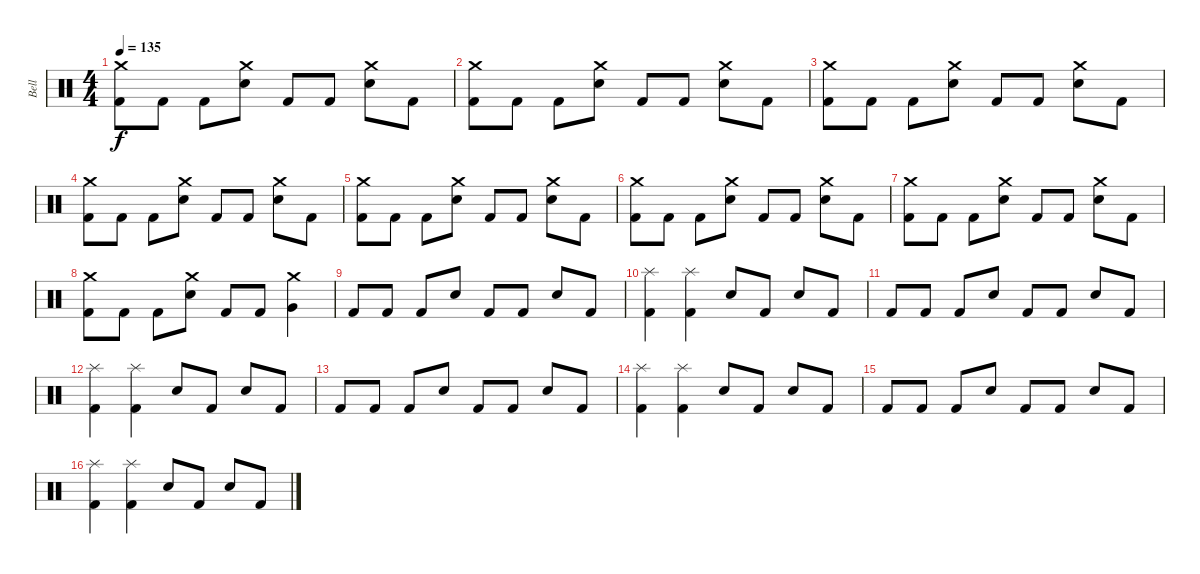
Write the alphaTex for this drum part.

\track ("Bell" "Bell") {instrument percussion}
\staff {score}
\articulation defaults
\ts (4 4)
\tempo 135
\clef neutral
\ks c
("Crash medium (hit)" "Kick (hit) 2").8{dy f} "Kick (hit) 2".8 "Kick (hit) 2".8 ("Crash medium (hit)" "Snare (hit) 2").8 "Kick (hit) 2".8 "Kick (hit) 2".8 ("Crash medium (hit)" "Snare (hit) 2").8 "Kick (hit) 2".8 |
("Crash medium (hit)" "Kick (hit) 2").8 "Kick (hit) 2".8 "Kick (hit) 2".8 ("Crash medium (hit)" "Snare (hit) 2").8 "Kick (hit) 2".8 "Kick (hit) 2".8 ("Crash medium (hit)" "Snare (hit) 2").8 "Kick (hit) 2".8 |
("Crash medium (hit)" "Kick (hit) 2").8 "Kick (hit) 2".8 "Kick (hit) 2".8 ("Crash medium (hit)" "Snare (hit) 2").8 "Kick (hit) 2".8 "Kick (hit) 2".8 ("Crash medium (hit)" "Snare (hit) 2").8 "Kick (hit) 2".8 |
("Crash medium (hit)" "Kick (hit) 2").8 "Kick (hit) 2".8 "Kick (hit) 2".8 ("Crash medium (hit)" "Snare (hit) 2").8 "Kick (hit) 2".8 "Kick (hit) 2".8 ("Crash medium (hit)" "Snare (hit) 2").8 "Kick (hit) 2".8 |
("Crash medium (hit)" "Kick (hit) 2").8 "Kick (hit) 2".8 "Kick (hit) 2".8 ("Crash medium (hit)" "Snare (hit) 2").8 "Kick (hit) 2".8 "Kick (hit) 2".8 ("Crash medium (hit)" "Snare (hit) 2").8 "Kick (hit) 2".8 |
("Crash medium (hit)" "Kick (hit) 2").8 "Kick (hit) 2".8 "Kick (hit) 2".8 ("Crash medium (hit)" "Snare (hit) 2").8 "Kick (hit) 2".8 "Kick (hit) 2".8 ("Crash medium (hit)" "Snare (hit) 2").8 "Kick (hit) 2".8 |
("Crash medium (hit)" "Kick (hit) 2").8 "Kick (hit) 2".8 "Kick (hit) 2".8 ("Crash medium (hit)" "Snare (hit) 2").8 "Kick (hit) 2".8 "Kick (hit) 2".8 ("Crash medium (hit)" "Snare (hit) 2").8 "Kick (hit) 2".8 |
("Crash medium (hit)" "Kick (hit) 2").8 "Kick (hit) 2".8 "Kick (hit) 2".8 ("Crash medium (hit)" "Snare (hit) 2").8 "Kick (hit) 2".8 "Kick (hit) 2".8 ("Crash medium (hit)" "Very Low Tom (hit)").4 |
"Kick (hit) 2".8 "Kick (hit) 2".8 "Kick (hit) 2".8 "Snare (hit) 2".8 "Kick (hit) 2".8 "Kick (hit) 2".8 "Snare (hit) 2".8 "Kick (hit) 2".8 |
("Splash (hit)" "Kick (hit) 2").4 ("Splash (hit)" "Kick (hit) 2").4 "Snare (hit) 2".8 "Kick (hit) 2".8 "Snare (hit) 2".8 "Kick (hit) 2".8 |
"Kick (hit) 2".8 "Kick (hit) 2".8 "Kick (hit) 2".8 "Snare (hit) 2".8 "Kick (hit) 2".8 "Kick (hit) 2".8 "Snare (hit) 2".8 "Kick (hit) 2".8 |
("Splash (hit)" "Kick (hit) 2").4 ("Splash (hit)" "Kick (hit) 2").4 "Snare (hit) 2".8 "Kick (hit) 2".8 "Snare (hit) 2".8 "Kick (hit) 2".8 |
"Kick (hit) 2".8 "Kick (hit) 2".8 "Kick (hit) 2".8 "Snare (hit) 2".8 "Kick (hit) 2".8 "Kick (hit) 2".8 "Snare (hit) 2".8 "Kick (hit) 2".8 |
("Splash (hit)" "Kick (hit) 2").4 ("Splash (hit)" "Kick (hit) 2").4 "Snare (hit) 2".8 "Kick (hit) 2".8 "Snare (hit) 2".8 "Kick (hit) 2".8 |
"Kick (hit) 2".8 "Kick (hit) 2".8 "Kick (hit) 2".8 "Snare (hit) 2".8 "Kick (hit) 2".8 "Kick (hit) 2".8 "Snare (hit) 2".8 "Kick (hit) 2".8 |
("Splash (hit)" "Kick (hit) 2").4 ("Splash (hit)" "Kick (hit) 2").4 "Snare (hit) 2".8 "Kick (hit) 2".8 "Snare (hit) 2".8 "Kick (hit) 2".8
